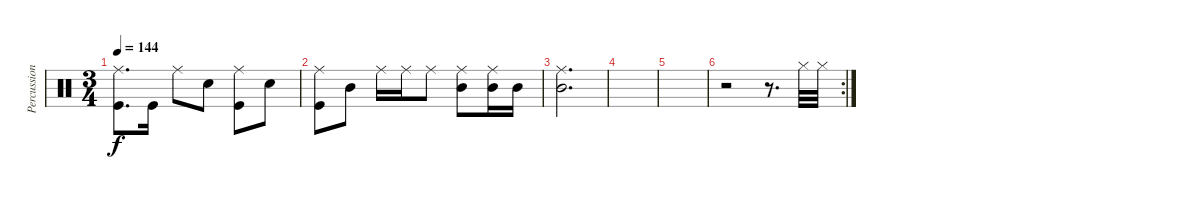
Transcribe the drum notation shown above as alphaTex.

\track ("Percussions" "Percussion") {instrument percussion}
\staff {score}
\articulation defaults
\ts (3 4)
\tempo 144
\clef neutral
\ks c
("Ride (middle)" "Kick (hit)").8{d dy f} "Kick (hit)".16 "Ride (middle)".8 "Snare (hit) 2".8 ("Ride (middle)" "Kick (hit)").8 "Snare (hit) 2".8 |
("Ride (middle)" "Kick (hit)").8 "Mid Tom (hit)".8 "Ride (middle)".16 "Ride (middle)".16 "Ride (middle)".8 ("Ride (middle)" "Mid Tom (hit)").8 ("Ride (middle)" "Mid Tom (hit)").16 "Mid Tom (hit)".16 |
("Ride (middle)" "Mid Tom (hit)").2{d} |
|
|
\rc 2
r.2 r.8{d} "Hi-Hat (closed)".32 "Hi-Hat (closed)".32
